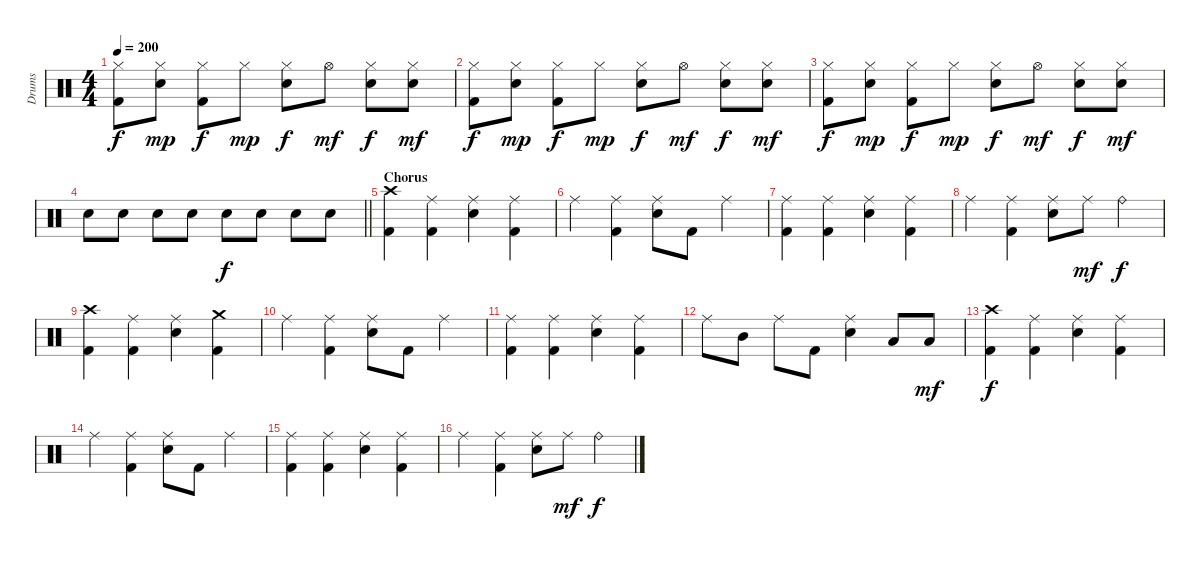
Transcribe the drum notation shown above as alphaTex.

\track ("Drums" "Drums") {instrument percussion}
\staff {score}
\articulation defaults
\ts (4 4)
\tempo 200
\clef neutral
\ks c
("Kick (hit) 2" "Hi-Hat (closed)").8{dy f} ("Hi-Hat (closed)" "Electric Snare (hit)").8{dy mp} ("Kick (hit) 2" "Hi-Hat (closed)").8{dy f} "Hi-Hat (closed)".8{dy mp} ("Hi-Hat (closed)" "Electric Snare (hit)").8{dy f} "Hi-Hat (open)".8{dy mf} ("Hi-Hat (closed)" "Electric Snare (hit)").8{dy f} ("Hi-Hat (closed)" "Electric Snare (hit)").8{dy mf} |
("Kick (hit) 2" "Hi-Hat (closed)").8{dy f} ("Hi-Hat (closed)" "Electric Snare (hit)").8{dy mp} ("Kick (hit) 2" "Hi-Hat (closed)").8{dy f} "Hi-Hat (closed)".8{dy mp} ("Hi-Hat (closed)" "Electric Snare (hit)").8{dy f} "Hi-Hat (open)".8{dy mf} ("Hi-Hat (closed)" "Electric Snare (hit)").8{dy f} ("Hi-Hat (closed)" "Electric Snare (hit)").8{dy mf} |
("Kick (hit) 2" "Hi-Hat (closed)").8{dy f} ("Hi-Hat (closed)" "Electric Snare (hit)").8{dy mp} ("Kick (hit) 2" "Hi-Hat (closed)").8{dy f} "Hi-Hat (closed)".8{dy mp} ("Hi-Hat (closed)" "Electric Snare (hit)").8{dy f} "Hi-Hat (open)".8{dy mf} ("Hi-Hat (closed)" "Electric Snare (hit)").8{dy f} ("Hi-Hat (closed)" "Electric Snare (hit)").8{dy mf} |
\barLineRight lightlight "Electric Snare (hit)".8 "Electric Snare (hit)".8 "Electric Snare (hit)".8 "Electric Snare (hit)".8 "Electric Snare (hit)".8{dy f} "Electric Snare (hit)".8 "Electric Snare (hit)".8 "Electric Snare (hit)".8
|
\section ("" "Chorus")
("Kick (hit) 2" "Crash high (hit)").4 ("Kick (hit) 2" "Ride (middle)").4 ("Ride (middle)" "Electric Snare (hit)").4 ("Kick (hit) 2" "Ride (middle)").4 |
"Ride (middle)".4 ("Kick (hit) 2" "Ride (middle)").4 ("Ride (middle)" "Electric Snare (hit)").8 "Kick (hit) 2".8 "Ride (middle)".4 |
("Kick (hit) 2" "Ride (middle)").4 ("Kick (hit) 2" "Ride (middle)").4 ("Ride (middle)" "Electric Snare (hit)").4 ("Kick (hit) 2" "Ride (middle)").4 |
"Ride (middle)".4 ("Kick (hit) 2" "Ride (middle)").4 ("Ride (middle)" "Electric Snare (hit)").8 "Ride (middle)".8{dy mf} "Ride (bell)".4{dy f} |
("Kick (hit) 2" "Crash high (hit)").4 ("Kick (hit) 2" "Ride (middle)").4 ("Ride (middle)" "Electric Snare (hit)").4 ("Kick (hit) 2" "Crash medium (hit)").4 |
"Ride (middle)".4 ("Kick (hit) 2" "Ride (middle)").4 ("Ride (middle)" "Electric Snare (hit)").8 "Kick (hit) 2".8 "Ride (middle)".4 |
("Kick (hit) 2" "Ride (middle)").4 ("Kick (hit) 2" "Ride (middle)").4 ("Ride (middle)" "Electric Snare (hit)").4 ("Kick (hit) 2" "Ride (middle)").4 |
"Ride (middle)".8 "Mid Tom (hit)".8 "Ride (middle)".8 "Kick (hit) 2".8 ("Ride (middle)" "Electric Snare (hit)").4 "Low Tom (hit)".8 "Low Tom (hit)".8{dy mf} |
("Kick (hit) 2" "Crash high (hit)").4{dy f} ("Kick (hit) 2" "Ride (middle)").4 ("Ride (middle)" "Electric Snare (hit)").4 ("Kick (hit) 2" "Ride (middle)").4 |
"Ride (middle)".4 ("Kick (hit) 2" "Ride (middle)").4 ("Ride (middle)" "Electric Snare (hit)").8 "Kick (hit) 2".8 "Ride (middle)".4 |
("Kick (hit) 2" "Ride (middle)").4 ("Kick (hit) 2" "Ride (middle)").4 ("Ride (middle)" "Electric Snare (hit)").4 ("Kick (hit) 2" "Ride (middle)").4 |
"Ride (middle)".4 ("Kick (hit) 2" "Ride (middle)").4 ("Ride (middle)" "Electric Snare (hit)").8 "Ride (middle)".8{dy mf} "Ride (bell)".4{dy f}
